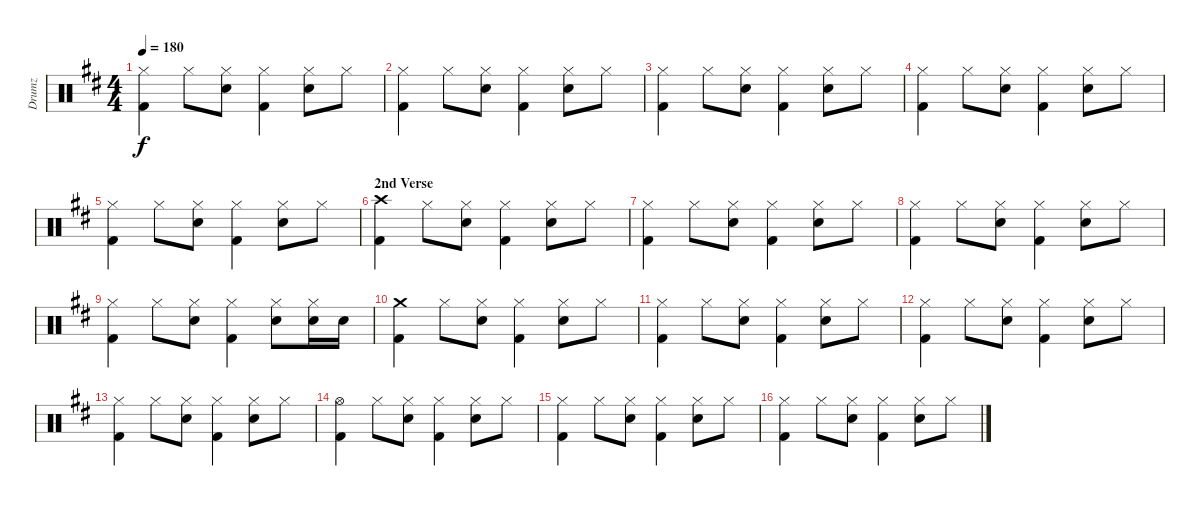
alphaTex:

\track ("Drumz" "Drumz") {instrument percussion}
\staff {score}
\articulation defaults
\ts (4 4)
\tempo 180
\clef neutral
\ks d
("Hi-Hat (closed)" "Kick (hit) 2").4{dy f} "Hi-Hat (closed)".8 ("Hi-Hat (closed)" "Snare (hit) 2").8 ("Hi-Hat (closed)" "Kick (hit) 2").4 ("Hi-Hat (closed)" "Snare (hit) 2").8 "Hi-Hat (closed)".8 |
("Hi-Hat (closed)" "Kick (hit) 2").4 "Hi-Hat (closed)".8 ("Hi-Hat (closed)" "Snare (hit) 2").8 ("Hi-Hat (closed)" "Kick (hit) 2").4 ("Hi-Hat (closed)" "Snare (hit) 2").8 "Hi-Hat (closed)".8 |
("Hi-Hat (closed)" "Kick (hit) 2").4 "Hi-Hat (closed)".8 ("Hi-Hat (closed)" "Snare (hit) 2").8 ("Hi-Hat (closed)" "Kick (hit) 2").4 ("Hi-Hat (closed)" "Snare (hit) 2").8 "Hi-Hat (closed)".8 |
("Hi-Hat (closed)" "Kick (hit) 2").4 "Hi-Hat (closed)".8 ("Hi-Hat (closed)" "Snare (hit) 2").8 ("Hi-Hat (closed)" "Kick (hit) 2").4 ("Hi-Hat (closed)" "Snare (hit) 2").8 "Hi-Hat (closed)".8 |
("Hi-Hat (closed)" "Kick (hit) 2").4 "Hi-Hat (closed)".8 ("Hi-Hat (closed)" "Snare (hit) 2").8 ("Hi-Hat (closed)" "Kick (hit) 2").4 ("Hi-Hat (closed)" "Snare (hit) 2").8 "Hi-Hat (closed)".8 |
\section ("" "2nd Verse")
("Crash high (hit)" "Kick (hit) 2").4 "Hi-Hat (closed)".8 ("Hi-Hat (closed)" "Snare (hit) 2").8 ("Hi-Hat (closed)" "Kick (hit) 2").4 ("Hi-Hat (closed)" "Snare (hit) 2").8 "Hi-Hat (closed)".8 |
("Hi-Hat (closed)" "Kick (hit) 2").4 "Hi-Hat (closed)".8 ("Hi-Hat (closed)" "Snare (hit) 2").8 ("Hi-Hat (closed)" "Kick (hit) 2").4 ("Hi-Hat (closed)" "Snare (hit) 2").8 "Hi-Hat (closed)".8 |
("Hi-Hat (closed)" "Kick (hit) 2").4 "Hi-Hat (closed)".8 ("Hi-Hat (closed)" "Snare (hit) 2").8 ("Hi-Hat (closed)" "Kick (hit) 2").4 ("Hi-Hat (closed)" "Snare (hit) 2").8 "Hi-Hat (closed)".8 |
("Hi-Hat (closed)" "Kick (hit) 2").4 "Hi-Hat (closed)".8 ("Hi-Hat (closed)" "Snare (hit) 2").8 ("Hi-Hat (closed)" "Kick (hit) 2").4 ("Hi-Hat (closed)" "Snare (hit) 2").8 ("Hi-Hat (closed)" "Snare (hit) 2").16 "Snare (hit) 2".16 |
("Crash medium (hit)" "Kick (hit) 2").4 "Hi-Hat (closed)".8 ("Hi-Hat (closed)" "Snare (hit) 2").8 ("Hi-Hat (closed)" "Kick (hit) 2").4 ("Hi-Hat (closed)" "Snare (hit) 2").8 "Hi-Hat (closed)".8 |
("Hi-Hat (closed)" "Kick (hit) 2").4 "Hi-Hat (closed)".8 ("Hi-Hat (closed)" "Snare (hit) 2").8 ("Hi-Hat (closed)" "Kick (hit) 2").4 ("Hi-Hat (closed)" "Snare (hit) 2").8 "Hi-Hat (closed)".8 |
("Hi-Hat (closed)" "Kick (hit) 2").4 "Hi-Hat (closed)".8 ("Hi-Hat (closed)" "Snare (hit) 2").8 ("Hi-Hat (closed)" "Kick (hit) 2").4 ("Hi-Hat (closed)" "Snare (hit) 2").8 "Hi-Hat (closed)".8 |
("Hi-Hat (closed)" "Kick (hit) 2").4 "Hi-Hat (closed)".8 ("Hi-Hat (closed)" "Snare (hit) 2").8 ("Hi-Hat (closed)" "Kick (hit) 2").4 ("Hi-Hat (closed)" "Snare (hit) 2").8 "Hi-Hat (closed)".8 |
("Hi-Hat (open)" "Kick (hit) 2").4 "Hi-Hat (closed)".8 ("Hi-Hat (closed)" "Snare (hit) 2").8 ("Hi-Hat (closed)" "Kick (hit) 2").4 ("Hi-Hat (closed)" "Snare (hit) 2").8 "Hi-Hat (closed)".8 |
("Hi-Hat (closed)" "Kick (hit) 2").4 "Hi-Hat (closed)".8 ("Hi-Hat (closed)" "Snare (hit) 2").8 ("Hi-Hat (closed)" "Kick (hit) 2").4 ("Hi-Hat (closed)" "Snare (hit) 2").8 "Hi-Hat (closed)".8 |
("Hi-Hat (closed)" "Kick (hit) 2").4 "Hi-Hat (closed)".8 ("Hi-Hat (closed)" "Snare (hit) 2").8 ("Hi-Hat (closed)" "Kick (hit) 2").4 ("Hi-Hat (closed)" "Snare (hit) 2").8 "Hi-Hat (closed)".8
